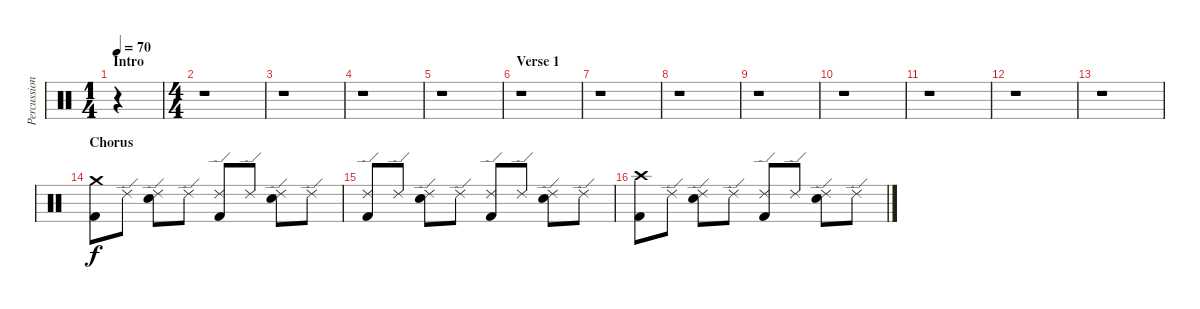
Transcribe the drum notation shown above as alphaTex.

\track ("Percussion" "Percussion") {instrument percussion}
\staff {score}
\articulation defaults
\ts (1 4)
\section ("" "Intro")
\tempo 70
\clef neutral
\ks c
r.4{dy f} |
\ts (4 4)
r.1 |
r.1 |
r.1 |
r.1 |
\section ("" "Verse 1")
r.1 |
r.1 |
r.1 |
r.1 |
r.1 |
r.1 |
r.1 |
r.1 |
\section ("" "Chorus")
("Crash medium (hit)" "Kick (hit) 2").8 "Ride (edge) 2".8 ("Ride (edge) 2" "Snare (hit) 2").8 "Ride (edge) 2".8 ("Ride (edge) 2" "Kick (hit) 2").8 "Ride (edge) 2".8 ("Ride (edge) 2" "Snare (hit) 2").8 "Ride (edge) 2".8 |
("Ride (edge) 2" "Kick (hit) 2").8 "Ride (edge) 2".8 ("Ride (edge) 2" "Snare (hit) 2").8 "Ride (edge) 2".8 ("Ride (edge) 2" "Kick (hit) 2").8 "Ride (edge) 2".8 ("Ride (edge) 2" "Snare (hit) 2").8 "Ride (edge) 2".8 |
("Crash high (hit)" "Kick (hit) 2").8 "Ride (edge) 2".8 ("Ride (edge) 2" "Snare (hit) 2").8 "Ride (edge) 2".8 ("Ride (edge) 2" "Kick (hit) 2").8 "Ride (edge) 2".8 ("Ride (edge) 2" "Snare (hit) 2").8 "Ride (edge) 2".8
